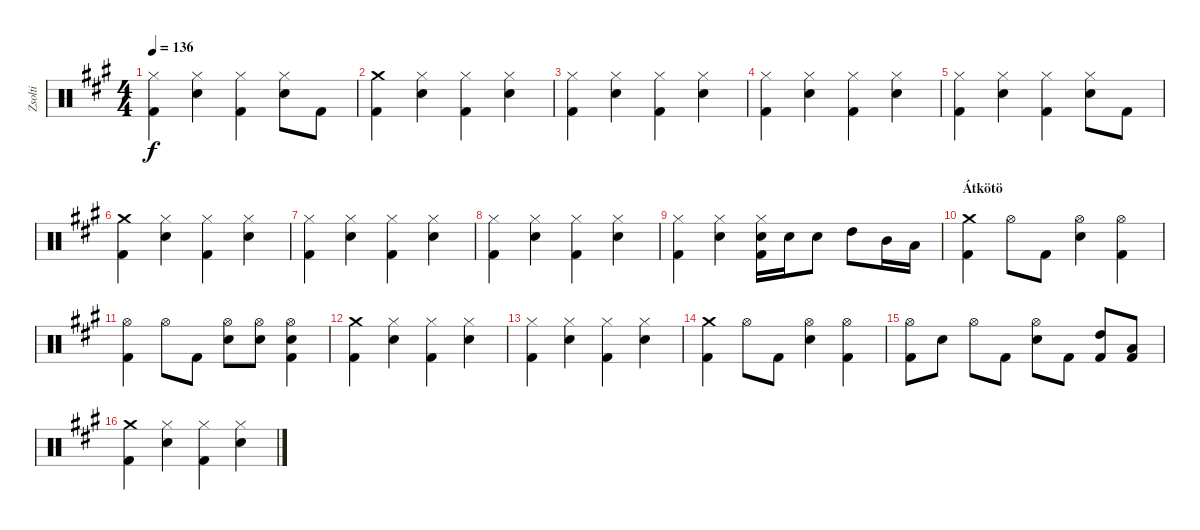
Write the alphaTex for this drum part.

\track ("Zsolti" "Zsolti") {instrument percussion}
\staff {score}
\articulation defaults
\ts (4 4)
\tempo 136
\clef neutral
\ks f#minor
("Hi-Hat (closed)" "Kick (hit) 2").4{dy f} ("Hi-Hat (closed)" "Snare (hit) 2").4 ("Hi-Hat (closed)" "Kick (hit) 2").4 ("Hi-Hat (closed)" "Snare (hit) 2").8 "Kick (hit) 2".8 |
("Crash medium (hit)" "Kick (hit) 2").4 ("Hi-Hat (closed)" "Snare (hit) 2").4 ("Hi-Hat (closed)" "Kick (hit) 2").4 ("Hi-Hat (closed)" "Snare (hit) 2").4 |
("Hi-Hat (closed)" "Kick (hit) 2").4 ("Hi-Hat (closed)" "Snare (hit) 2").4 ("Hi-Hat (closed)" "Kick (hit) 2").4 ("Hi-Hat (closed)" "Snare (hit) 2").4 |
("Hi-Hat (closed)" "Kick (hit) 2").4 ("Hi-Hat (closed)" "Snare (hit) 2").4 ("Hi-Hat (closed)" "Kick (hit) 2").4 ("Hi-Hat (closed)" "Snare (hit) 2").4 |
("Hi-Hat (closed)" "Kick (hit) 2").4 ("Hi-Hat (closed)" "Snare (hit) 2").4 ("Hi-Hat (closed)" "Kick (hit) 2").4 ("Hi-Hat (closed)" "Snare (hit) 2").8 "Kick (hit) 2".8 |
("Crash medium (hit)" "Kick (hit) 2").4 ("Hi-Hat (closed)" "Snare (hit) 2").4 ("Hi-Hat (closed)" "Kick (hit) 2").4 ("Hi-Hat (closed)" "Snare (hit) 2").4 |
("Hi-Hat (closed)" "Kick (hit) 2").4 ("Hi-Hat (closed)" "Snare (hit) 2").4 ("Hi-Hat (closed)" "Kick (hit) 2").4 ("Hi-Hat (closed)" "Snare (hit) 2").4 |
("Hi-Hat (closed)" "Kick (hit) 2").4 ("Hi-Hat (closed)" "Snare (hit) 2").4 ("Hi-Hat (closed)" "Kick (hit) 2").4 ("Hi-Hat (closed)" "Snare (hit) 2").4 |
("Hi-Hat (closed)" "Kick (hit) 2").4 ("Hi-Hat (closed)" "Snare (hit) 2").4 ("Hi-Hat (closed)" "Snare (hit) 2" "Kick (hit) 2").16 "Snare (hit) 2".16 "Snare (hit) 2".8 "High Tom (hit)".8 "Mid Tom (hit)".16 "Low Tom (hit)".16 |
\section ("" "Átkötö")
("Crash medium (hit)" "Kick (hit) 2").4 "Hi-Hat (open)".8 "Kick (hit) 2".8 ("Hi-Hat (open)" "Snare (hit) 2").4 ("Hi-Hat (open)" "Kick (hit) 2").4 |
("Hi-Hat (open)" "Kick (hit) 2").4 "Hi-Hat (open)".8 "Kick (hit) 2".8 ("Hi-Hat (open)" "Snare (hit) 2").8 ("Hi-Hat (open)" "Snare (hit) 2").8 ("Hi-Hat (open)" "Snare (hit) 2" "Kick (hit) 2").4 |
("Crash medium (hit)" "Kick (hit) 2").4 ("Hi-Hat (closed)" "Snare (hit) 2").4 ("Hi-Hat (closed)" "Kick (hit) 2").4 ("Hi-Hat (closed)" "Snare (hit) 2").4 |
("Hi-Hat (closed)" "Kick (hit) 2").4 ("Hi-Hat (closed)" "Snare (hit) 2").4 ("Hi-Hat (closed)" "Kick (hit) 2").4 ("Hi-Hat (closed)" "Snare (hit) 2").4 |
("Crash medium (hit)" "Kick (hit) 2").4 "Hi-Hat (open)".8 "Kick (hit) 2".8 ("Hi-Hat (open)" "Snare (hit) 2").4 ("Hi-Hat (open)" "Kick (hit) 2").4 |
("Hi-Hat (open)" "Kick (hit) 2").8 "Snare (hit) 2".8 "Hi-Hat (open)".8 "Kick (hit) 2".8 ("Hi-Hat (open)" "Snare (hit) 2").8 "Kick (hit) 2".8 ("High Tom (hit)" "Kick (hit) 2").8 ("Low Tom (hit)" "Kick (hit) 2").8 |
("Crash medium (hit)" "Kick (hit) 2").4 ("Hi-Hat (closed)" "Snare (hit) 2").4 ("Hi-Hat (closed)" "Kick (hit) 2").4 ("Hi-Hat (closed)" "Snare (hit) 2").4
